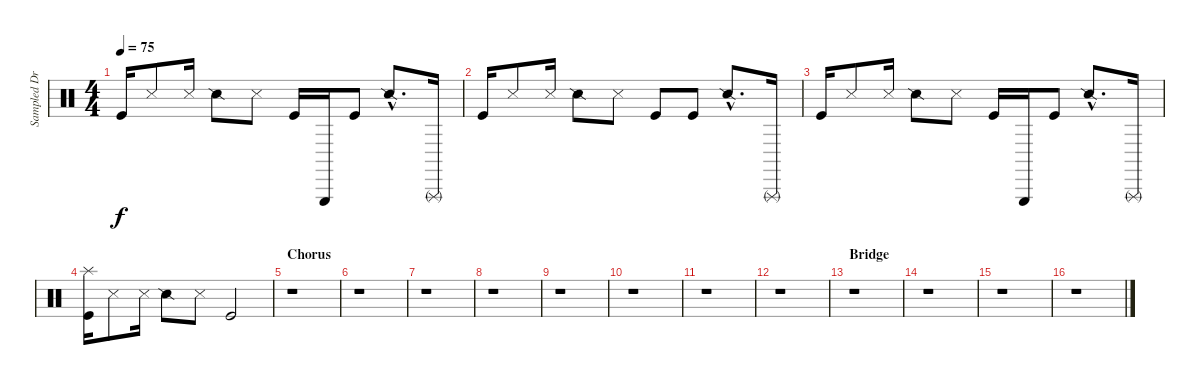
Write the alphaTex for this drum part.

\track ("Sampled Drums" "Sampled Dr") {instrument percussion}
\staff {score}
\articulation defaults
\ts (4 4)
\tempo 75
\clef neutral
\ks c "Kick (hit)".16{dy f} "Snare (side stick) 3".8 "Snare (side stick) 3".16 "Snare (side stick) 2".8 "Snare (side stick) 3".8 "Kick (hit)".16 "Triangle (hit)".16 "Kick (hit)".8 "Snare (side stick) 2"{hac}.8{d} "Triangle (rnute)".16
|
"Kick (hit)".16 "Snare (side stick) 3".8 "Snare (side stick) 3".16 "Snare (side stick) 2".8 "Snare (side stick) 3".8 "Kick (hit)".8 "Kick (hit)".8 "Snare (side stick) 2"{hac}.8{d} "Triangle (rnute)".16 |
"Kick (hit)".16 "Snare (side stick) 3".8 "Snare (side stick) 3".16 "Snare (side stick) 2".8 "Snare (side stick) 3".8 "Kick (hit)".16 "Triangle (hit)".16 "Kick (hit)".8 "Snare (side stick) 2"{hac}.8{d} "Triangle (rnute)".16 |
("Splash (hit)" "Kick (hit)").16 "Snare (side stick) 3".8 "Snare (side stick) 3".16 "Snare (side stick) 2".8 "Snare (side stick) 3".8 "Kick (hit)".2 |
\section ("" "Chorus")
r.1 |
r.1 |
r.1 |
r.1 |
r.1 |
r.1 |
r.1 |
r.1 |
\section ("" "Bridge")
r.1 |
r.1 |
r.1 |
r.1
